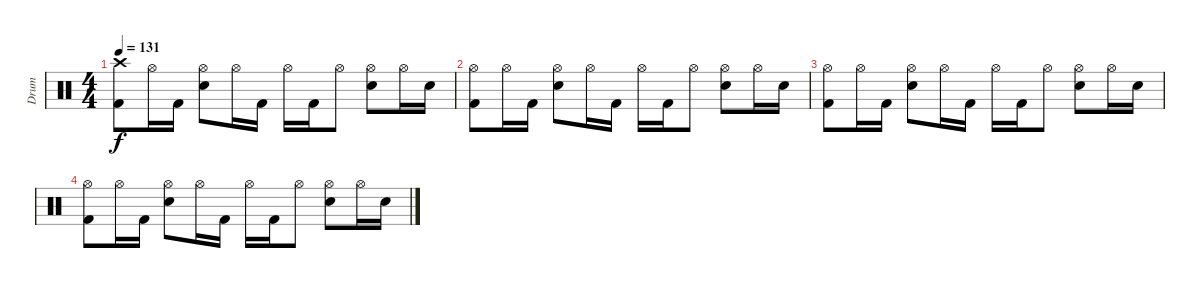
\track ("Drum" "Drum") {instrument percussion}
\staff {score}
\articulation defaults
\ts (4 4)
\tempo 131
\clef neutral
\ks c
("Crash high (hit)" "Kick (hit) 2").8{dy f volume 7} "Hi-Hat (open)".16 "Kick (hit) 2".16 ("Hi-Hat (open)" "Snare (hit) 2").8 "Hi-Hat (open)".16 "Kick (hit) 2".16 "Hi-Hat (open)".16{volume 6} "Kick (hit) 2".16 "Hi-Hat (open)".8 ("Hi-Hat (open)" "Snare (hit) 2").8 "Hi-Hat (open)".16 "Snare (hit) 2".16 |
("Hi-Hat (open)" "Kick (hit) 2").8{volume 5} "Hi-Hat (open)".16 "Kick (hit) 2".16 ("Hi-Hat (open)" "Snare (hit) 2").8 "Hi-Hat (open)".16 "Kick (hit) 2".16 "Hi-Hat (open)".16{volume 4} "Kick (hit) 2".16 "Hi-Hat (open)".8 ("Hi-Hat (open)" "Snare (hit) 2").8 "Hi-Hat (open)".16 "Snare (hit) 2".16 |
("Hi-Hat (open)" "Kick (hit) 2").8{volume 3} "Hi-Hat (open)".16 "Kick (hit) 2".16 ("Hi-Hat (open)" "Snare (hit) 2").8 "Hi-Hat (open)".16 "Kick (hit) 2".16{volume 2} "Hi-Hat (open)".16 "Kick (hit) 2".16 "Hi-Hat (open)".8 ("Hi-Hat (open)" "Snare (hit) 2").8 "Hi-Hat (open)".16 "Snare (hit) 2".16 |
("Hi-Hat (open)" "Kick (hit) 2").8{volume 1} "Hi-Hat (open)".16 "Kick (hit) 2".16 ("Hi-Hat (open)" "Snare (hit) 2").8 "Hi-Hat (open)".16 "Kick (hit) 2".16 "Hi-Hat (open)".16{volume 0} "Kick (hit) 2".16 "Hi-Hat (open)".8 ("Hi-Hat (open)" "Snare (hit) 2").8 "Hi-Hat (open)".16 "Snare (hit) 2".16
